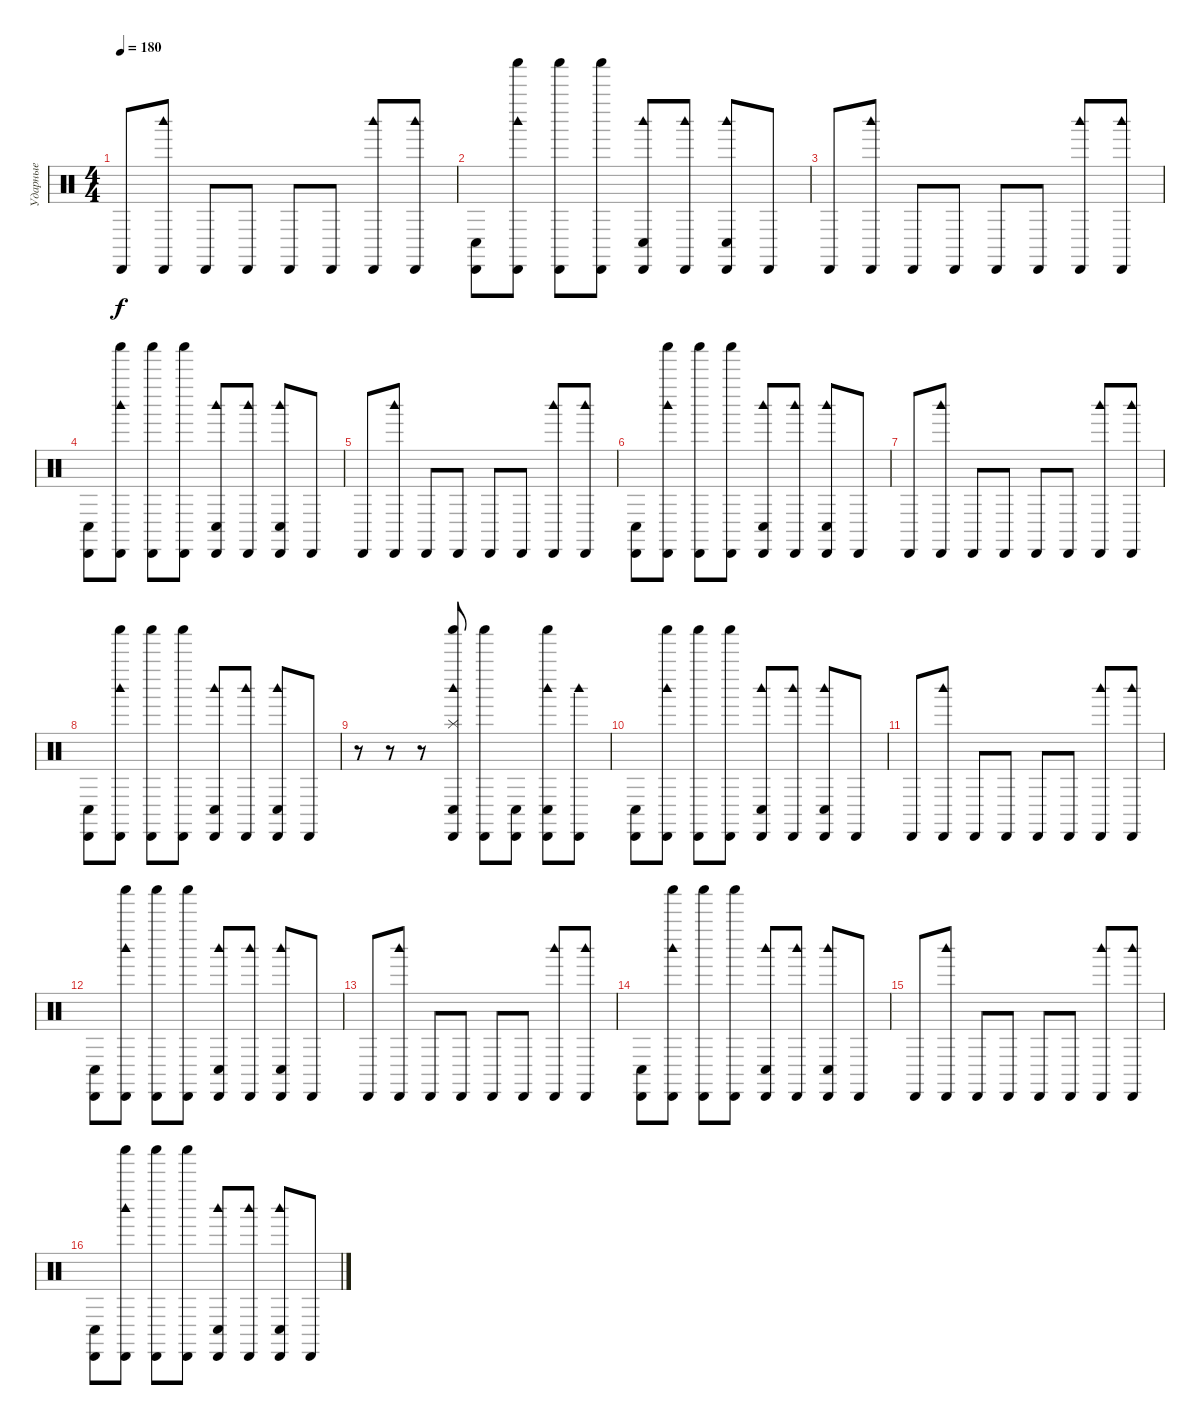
\track ("Ударные" "Ударные") {instrument percussion}
\staff {score}
\articulation defaults
\ts (4 4)
\tempo 180
\clef neutral
\ks c "Cabasa (hit)".8{dy f}
("Woodblock high (hit)" "Cabasa (hit)").8 "Cabasa (hit)".8 "Cabasa (hit)".8 "Cabasa (hit)".8 "Cabasa (hit)".8 ("Woodblock high (hit)" "Cabasa (hit)").8 ("Woodblock high (hit)" "Cabasa (hit)").8 |
("Cabasa (hit)" "Conga low (hit)").8 ("Woodblock high (hit)" "Shaker (hit)" "Cabasa (hit)").8 ("Shaker (hit)" "Cabasa (hit)").8 ("Shaker (hit)" "Cabasa (hit)").8 ("Woodblock high (hit)" "Cabasa (hit)" "Conga low (hit)").8 ("Woodblock high (hit)" "Cabasa (hit)").8 ("Woodblock high (hit)" "Cabasa (hit)" "Conga low (hit)").8 "Cabasa (hit)".8 |
"Cabasa (hit)".8 ("Woodblock high (hit)" "Cabasa (hit)").8 "Cabasa (hit)".8 "Cabasa (hit)".8 "Cabasa (hit)".8 "Cabasa (hit)".8 ("Woodblock high (hit)" "Cabasa (hit)").8 ("Woodblock high (hit)" "Cabasa (hit)").8 |
("Cabasa (hit)" "Conga low (hit)").8 ("Woodblock high (hit)" "Shaker (hit)" "Cabasa (hit)").8 ("Shaker (hit)" "Cabasa (hit)").8 ("Shaker (hit)" "Cabasa (hit)").8 ("Woodblock high (hit)" "Cabasa (hit)" "Conga low (hit)").8 ("Woodblock high (hit)" "Cabasa (hit)").8 ("Woodblock high (hit)" "Cabasa (hit)" "Conga low (hit)").8 "Cabasa (hit)".8 |
"Cabasa (hit)".8 ("Woodblock high (hit)" "Cabasa (hit)").8 "Cabasa (hit)".8 "Cabasa (hit)".8 "Cabasa (hit)".8 "Cabasa (hit)".8 ("Woodblock high (hit)" "Cabasa (hit)").8 ("Woodblock high (hit)" "Cabasa (hit)").8 |
("Cabasa (hit)" "Conga low (hit)").8 ("Woodblock high (hit)" "Shaker (hit)" "Cabasa (hit)").8 ("Shaker (hit)" "Cabasa (hit)").8 ("Shaker (hit)" "Cabasa (hit)").8 ("Woodblock high (hit)" "Cabasa (hit)" "Conga low (hit)").8 ("Woodblock high (hit)" "Cabasa (hit)").8 ("Woodblock high (hit)" "Cabasa (hit)" "Conga low (hit)").8 "Cabasa (hit)".8 |
"Cabasa (hit)".8 ("Woodblock high (hit)" "Cabasa (hit)").8 "Cabasa (hit)".8 "Cabasa (hit)".8 "Cabasa (hit)".8 "Cabasa (hit)".8 ("Woodblock high (hit)" "Cabasa (hit)").8 ("Woodblock high (hit)" "Cabasa (hit)").8 |
("Cabasa (hit)" "Conga low (hit)").8 ("Woodblock high (hit)" "Shaker (hit)" "Cabasa (hit)").8 ("Shaker (hit)" "Cabasa (hit)").8 ("Shaker (hit)" "Cabasa (hit)").8 ("Woodblock high (hit)" "Cabasa (hit)" "Conga low (hit)").8 ("Woodblock high (hit)" "Cabasa (hit)").8 ("Woodblock high (hit)" "Cabasa (hit)" "Conga low (hit)").8 "Cabasa (hit)".8 |
r.8 r.8 r.8 ("Woodblock high (hit)" "Shaker (hit)" "Cabasa (hit)" "Splash (hit)" "Conga low (hit)").8 ("Shaker (hit)" "Cabasa (hit)").8 ("Cabasa (hit)" "Conga low (hit)").8 ("Woodblock high (hit)" "Shaker (hit)" "Cabasa (hit)" "Conga low (hit)").8 ("Woodblock high (hit)" "Cabasa (hit)").8 |
("Cabasa (hit)" "Conga low (hit)").8 ("Woodblock high (hit)" "Shaker (hit)" "Cabasa (hit)").8 ("Shaker (hit)" "Cabasa (hit)").8 ("Shaker (hit)" "Cabasa (hit)").8 ("Woodblock high (hit)" "Cabasa (hit)" "Conga low (hit)").8 ("Woodblock high (hit)" "Cabasa (hit)").8 ("Woodblock high (hit)" "Cabasa (hit)" "Conga low (hit)").8 "Cabasa (hit)".8 |
"Cabasa (hit)".8 ("Woodblock high (hit)" "Cabasa (hit)").8 "Cabasa (hit)".8 "Cabasa (hit)".8 "Cabasa (hit)".8 "Cabasa (hit)".8 ("Woodblock high (hit)" "Cabasa (hit)").8 ("Woodblock high (hit)" "Cabasa (hit)").8 |
("Cabasa (hit)" "Conga low (hit)").8 ("Woodblock high (hit)" "Shaker (hit)" "Cabasa (hit)").8 ("Shaker (hit)" "Cabasa (hit)").8 ("Shaker (hit)" "Cabasa (hit)").8 ("Woodblock high (hit)" "Cabasa (hit)" "Conga low (hit)").8 ("Woodblock high (hit)" "Cabasa (hit)").8 ("Woodblock high (hit)" "Cabasa (hit)" "Conga low (hit)").8 "Cabasa (hit)".8 |
"Cabasa (hit)".8 ("Woodblock high (hit)" "Cabasa (hit)").8 "Cabasa (hit)".8 "Cabasa (hit)".8 "Cabasa (hit)".8 "Cabasa (hit)".8 ("Woodblock high (hit)" "Cabasa (hit)").8 ("Woodblock high (hit)" "Cabasa (hit)").8 |
("Cabasa (hit)" "Conga low (hit)").8 ("Woodblock high (hit)" "Shaker (hit)" "Cabasa (hit)").8 ("Shaker (hit)" "Cabasa (hit)").8 ("Shaker (hit)" "Cabasa (hit)").8 ("Woodblock high (hit)" "Cabasa (hit)" "Conga low (hit)").8 ("Woodblock high (hit)" "Cabasa (hit)").8 ("Woodblock high (hit)" "Cabasa (hit)" "Conga low (hit)").8 "Cabasa (hit)".8 |
"Cabasa (hit)".8 ("Woodblock high (hit)" "Cabasa (hit)").8 "Cabasa (hit)".8 "Cabasa (hit)".8 "Cabasa (hit)".8 "Cabasa (hit)".8 ("Woodblock high (hit)" "Cabasa (hit)").8 ("Woodblock high (hit)" "Cabasa (hit)").8 |
("Cabasa (hit)" "Conga low (hit)").8 ("Woodblock high (hit)" "Shaker (hit)" "Cabasa (hit)").8 ("Shaker (hit)" "Cabasa (hit)").8 ("Shaker (hit)" "Cabasa (hit)").8 ("Woodblock high (hit)" "Cabasa (hit)" "Conga low (hit)").8 ("Woodblock high (hit)" "Cabasa (hit)").8 ("Woodblock high (hit)" "Cabasa (hit)" "Conga low (hit)").8 "Cabasa (hit)".8
